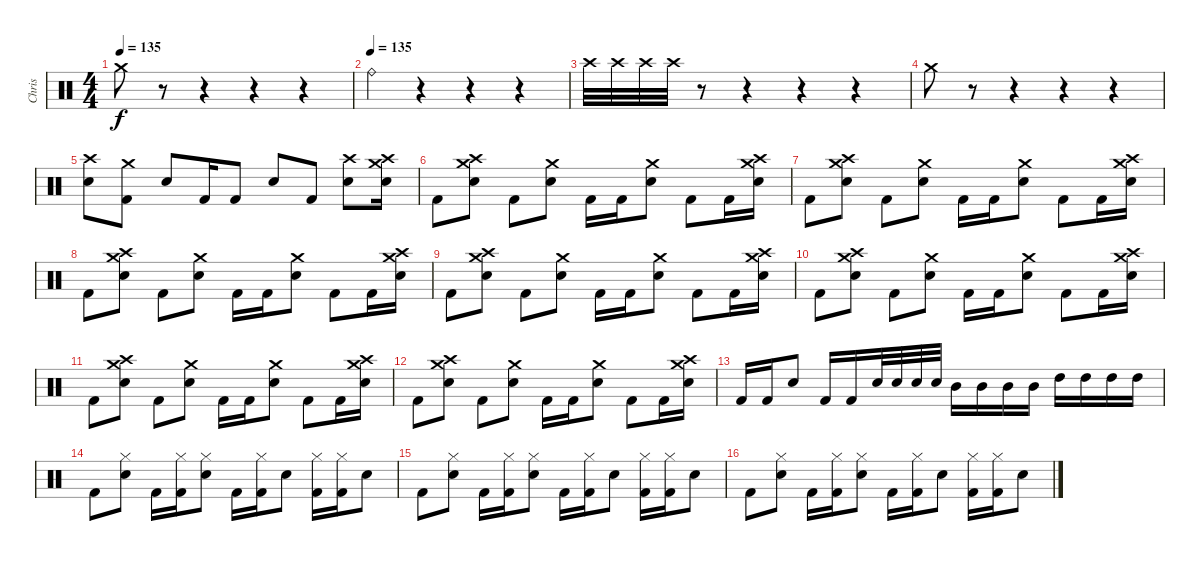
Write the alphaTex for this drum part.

\track ("Chris" "Chris") {instrument percussion}
\staff {score}
\articulation defaults
\ts (4 4)
\tempo 135
\clef neutral
\ks c "Crash medium (hit)".8{dy f}
r.8 r.4 r.4 r.4 |
\tempo (135)
"Ride (bell)".4 r.4 r.4 r.4 |
"Crash high (hit)".32 "Crash high (hit)".32 "Crash high (hit)".32 "Crash high (hit)".32 r.8 r.4 r.4 r.4 |
"Crash medium (hit)".8 r.8 r.4 r.4 r.4 |
("Crash high (hit)" "Snare (hit) 2").8 ("Crash medium (hit)" "Kick (hit) 2").8 "Snare (hit) 2".8 "Kick (hit) 2".16 "Kick (hit) 2".8 "Snare (hit) 2".8 "Kick (hit) 2".8 ("Crash high (hit)" "Snare (hit) 2").8 ("Crash medium (hit)" "Snare (hit) 2" "Crash high (hit)").16 |
"Kick (hit) 2".8 ("Snare (hit) 2" "Crash medium (hit)" "Crash high (hit)").8 "Kick (hit) 2".8 ("Snare (hit) 2" "Crash medium (hit)").8 "Kick (hit) 2".16 "Kick (hit) 2".16 ("Snare (hit) 2" "Crash medium (hit)").8 "Kick (hit) 2".8 "Kick (hit) 2".16 ("Snare (hit) 2" "Crash high (hit)" "Crash medium (hit)").16 |
"Kick (hit) 2".8 ("Snare (hit) 2" "Crash medium (hit)" "Crash high (hit)").8 "Kick (hit) 2".8 ("Snare (hit) 2" "Crash medium (hit)").8 "Kick (hit) 2".16 "Kick (hit) 2".16 ("Snare (hit) 2" "Crash medium (hit)").8 "Kick (hit) 2".8 "Kick (hit) 2".16 ("Snare (hit) 2" "Crash high (hit)" "Crash medium (hit)").16 |
"Kick (hit) 2".8 ("Snare (hit) 2" "Crash medium (hit)" "Crash high (hit)").8 "Kick (hit) 2".8 ("Snare (hit) 2" "Crash medium (hit)").8 "Kick (hit) 2".16 "Kick (hit) 2".16 ("Snare (hit) 2" "Crash medium (hit)").8 "Kick (hit) 2".8 "Kick (hit) 2".16 ("Snare (hit) 2" "Crash high (hit)" "Crash medium (hit)").16 |
"Kick (hit) 2".8 ("Snare (hit) 2" "Crash medium (hit)" "Crash high (hit)").8 "Kick (hit) 2".8 ("Snare (hit) 2" "Crash medium (hit)").8 "Kick (hit) 2".16 "Kick (hit) 2".16 ("Snare (hit) 2" "Crash medium (hit)").8 "Kick (hit) 2".8 "Kick (hit) 2".16 ("Snare (hit) 2" "Crash high (hit)" "Crash medium (hit)").16 |
"Kick (hit) 2".8 ("Snare (hit) 2" "Crash medium (hit)" "Crash high (hit)").8 "Kick (hit) 2".8 ("Snare (hit) 2" "Crash medium (hit)").8 "Kick (hit) 2".16 "Kick (hit) 2".16 ("Snare (hit) 2" "Crash medium (hit)").8 "Kick (hit) 2".8 "Kick (hit) 2".16 ("Snare (hit) 2" "Crash high (hit)" "Crash medium (hit)").16 |
"Kick (hit) 2".8 ("Snare (hit) 2" "Crash medium (hit)" "Crash high (hit)").8 "Kick (hit) 2".8 ("Snare (hit) 2" "Crash medium (hit)").8 "Kick (hit) 2".16 "Kick (hit) 2".16 ("Snare (hit) 2" "Crash medium (hit)").8 "Kick (hit) 2".8 "Kick (hit) 2".16 ("Snare (hit) 2" "Crash high (hit)" "Crash medium (hit)").16 |
"Kick (hit) 2".8 ("Snare (hit) 2" "Crash medium (hit)" "Crash high (hit)").8 "Kick (hit) 2".8 ("Snare (hit) 2" "Crash medium (hit)").8 "Kick (hit) 2".16 "Kick (hit) 2".16 ("Snare (hit) 2" "Crash medium (hit)").8 "Kick (hit) 2".8 "Kick (hit) 2".16 ("Snare (hit) 2" "Crash high (hit)" "Crash medium (hit)").16 |
"Kick (hit) 2".16 "Kick (hit) 2".16 "Snare (hit) 2".8 "Kick (hit) 2".16 "Kick (hit) 2".16 "Snare (hit) 2".32 "Snare (hit) 2".32 "Snare (hit) 2".32 "Snare (hit) 2".32 "Mid Tom (hit)".16 "Mid Tom (hit)".16 "Mid Tom (hit)".16 "Mid Tom (hit)".16 "High Tom (hit)".16 "High Tom (hit)".16 "High Tom (hit)".16 "High Tom (hit)".16 |
"Kick (hit) 2".8 ("Hi-Hat (closed)" "Snare (hit) 2").8 "Kick (hit) 2".16 ("Hi-Hat (closed)" "Kick (hit) 2").16 ("Hi-Hat (closed)" "Snare (hit) 2").8 "Kick (hit) 2".16 ("Hi-Hat (closed)" "Kick (hit) 2").16 "Snare (hit) 2".8 ("Hi-Hat (closed)" "Kick (hit) 2").16 ("Hi-Hat (closed)" "Kick (hit) 2").16 "Snare (hit) 2".8 |
"Kick (hit) 2".8 ("Hi-Hat (closed)" "Snare (hit) 2").8 "Kick (hit) 2".16 ("Hi-Hat (closed)" "Kick (hit) 2").16 ("Hi-Hat (closed)" "Snare (hit) 2").8 "Kick (hit) 2".16 ("Hi-Hat (closed)" "Kick (hit) 2").16 "Snare (hit) 2".8 ("Hi-Hat (closed)" "Kick (hit) 2").16 ("Hi-Hat (closed)" "Kick (hit) 2").16 "Snare (hit) 2".8 |
"Kick (hit) 2".8 ("Hi-Hat (closed)" "Snare (hit) 2").8 "Kick (hit) 2".16 ("Hi-Hat (closed)" "Kick (hit) 2").16 ("Hi-Hat (closed)" "Snare (hit) 2").8 "Kick (hit) 2".16 ("Hi-Hat (closed)" "Kick (hit) 2").16 "Snare (hit) 2".8 ("Hi-Hat (closed)" "Kick (hit) 2").16 ("Hi-Hat (closed)" "Kick (hit) 2").16 "Snare (hit) 2".8
